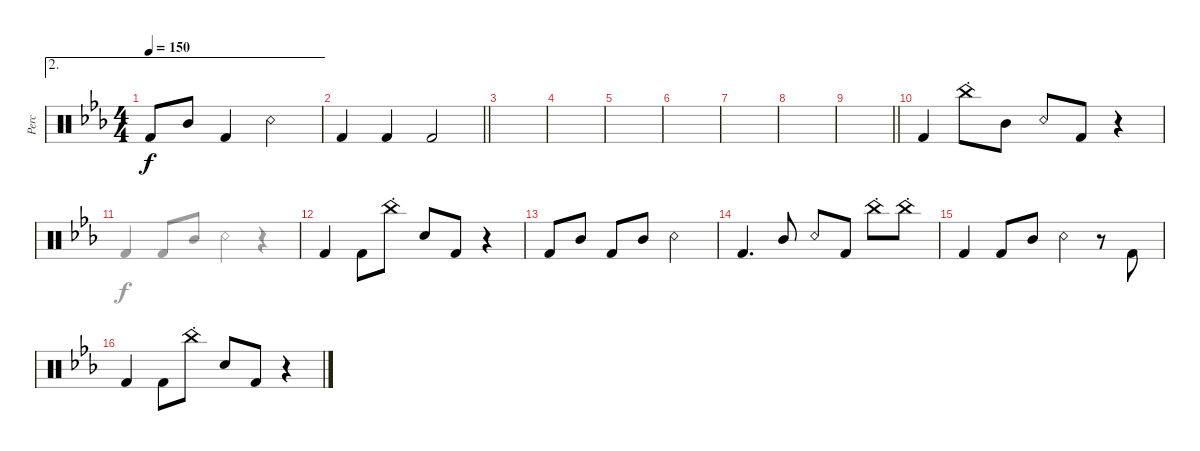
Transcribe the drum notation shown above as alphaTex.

\defaultSystemsLayout 4
\bracketExtendMode groupsimilarinstruments
\otherSystemsTrackNameOrientation horizontal
\track ("Percussion" "Perc") {instrument percussion}
\staff {score}
\articulation defaults
\voice
\ae 2
\ts (4 4)
\tempo 150
\clef neutral
\ks cminor "Kick (hit) 2"{acc forcenatural}.8{dy f beam Up} "Mid Tom (hit)"{acc forcenatural}.8{beam Up} "Kick (hit) 2"{acc forcenatural}.4{beam Up} "Snare (rim shot)"{acc forcenatural}.2{beam Down}
|
\barLineRight lightlight "Kick (hit) 2"{acc forcenatural}.4{beam Up} "Kick (hit) 2"{acc forcenatural}.4{beam Up} "Kick (hit) 2"{acc forcenatural}.2{beam Up}
|
|
|
|
|
|
|
\barLineRight lightlight
|
"Kick (hit) 2"{acc forcenatural}.4{beam Up} "China (hit)"{st acc forcenatural}.8{beam Down} "Mid Tom (hit)"{acc forcenatural}.8{beam Down} "Snare (rim shot)"{acc forcenatural}.8{beam Up} "Kick (hit) 2"{acc forcenatural}.8{beam Up} r.4{beam Up} |
|
"Kick (hit) 2"{acc forcenatural}.4{beam Up} "Kick (hit) 2"{acc forcenatural}.8{beam Down} "China (hit)"{st acc forcenatural}.8{beam Down} "Snare (hit) 2"{acc forcenatural}.8{beam Up} "Kick (hit) 2"{acc forcenatural}.8{beam Up} r.4{beam Up} |
"Kick (hit) 2"{acc forcenatural}.8{beam Up} "Mid Tom (hit)"{acc forcenatural}.8{beam Up} "Kick (hit) 2"{acc forcenatural}.8{beam Up} "Mid Tom (hit)"{acc forcenatural}.8{beam Up} "Snare (rim shot)"{acc forcenatural}.2{beam Down} |
"Kick (hit) 2"{acc forcenatural}.4{d beam Up} "Mid Tom (hit)"{acc forcenatural}.8{beam Up} "Snare (rim shot)"{acc forcenatural}.8{beam Up} "Kick (hit) 2"{acc forcenatural}.8{beam Up} "China (hit)"{st acc forcenatural}.8{beam Down} "China (hit)"{st acc forcenatural}.8{beam Down} |
"Kick (hit) 2"{acc forcenatural}.4{beam Up} "Kick (hit) 2"{acc forcenatural}.8{beam Up} "Mid Tom (hit)"{acc forcenatural}.8{beam Up} "Snare (rim shot)"{acc forcenatural}.4{beam Down} r.8{beam Down} "Kick (hit) 2"{acc forcenatural}.8{beam Up} |
"Kick (hit) 2"{acc forcenatural}.4{beam Up} "Kick (hit) 2"{acc forcenatural}.8{beam Down} "China (hit)"{st acc forcenatural}.8{beam Down} "Snare (hit) 2"{acc forcenatural}.8{beam Up} "Kick (hit) 2"{acc forcenatural}.8{beam Up} r.4{beam Up}
\voice
\clef neutral
\ottava regular
\simile none
\ks cminor
|
\barLineRight lightlight
|
|
|
|
|
|
|
\barLineRight lightlight
|
|
"Kick (hit) 2"{acc forcenatural}.4{beam Up} "Kick (hit) 2"{acc forcenatural}.8{beam Up} "Mid Tom (hit)"{acc forcenatural}.8{beam Up} "Snare (rim shot)"{acc forcenatural}.4{beam Down} r.4{beam Down} |
|
|
|
|
